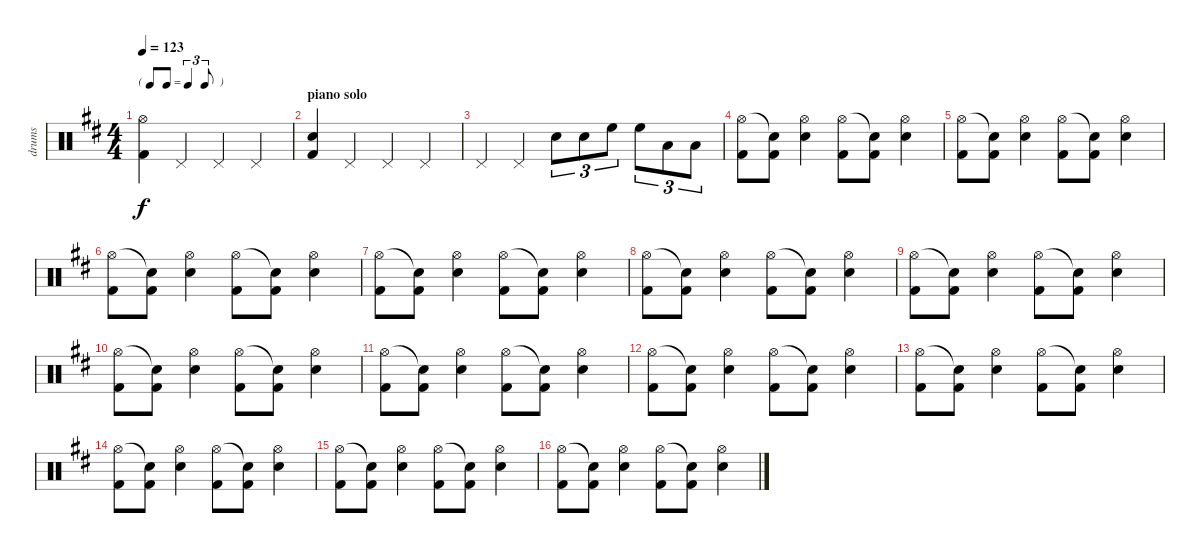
\track ("drums" "drums") {instrument percussion}
\staff {score}
\articulation defaults
\ts (4 4)
\tf triplet8th
\tempo 123
\clef neutral
\ks d
("Hi-Hat (open)" "Kick (hit) 2").4{dy f} "Pedal Hi-Hat (hit)".4 "Pedal Hi-Hat (hit)".4 "Pedal Hi-Hat (hit)".4 |
\section ("" "piano solo")
("Snare (hit) 2" "Kick (hit) 2").4 "Pedal Hi-Hat (hit)".4 "Pedal Hi-Hat (hit)".4 "Pedal Hi-Hat (hit)".4 |
"Pedal Hi-Hat (hit)".4 "Pedal Hi-Hat (hit)".4 "Snare (hit) 2".8{tu (3 2)} "Snare (hit) 2".8{tu (3 2)} "High Floor Tom (hit)".8{tu (3 2)} "High Floor Tom (hit)".8{tu (3 2)} "Low Tom (hit)".8{tu (3 2)} "Low Tom (hit)".8{tu (3 2)} |
("Hi-Hat (open)" "Kick (hit) 2").8 ("Snare (hit)"{t} "Kick (hit) 2").8 ("Hi-Hat (open)" "Snare (hit) 2").4 ("Hi-Hat (open)" "Kick (hit) 2").8 ("Snare (hit)"{t} "Kick (hit) 2").8 ("Hi-Hat (open)" "Snare (hit) 2").4 |
("Hi-Hat (open)" "Kick (hit) 2").8 ("Snare (hit)"{t} "Kick (hit) 2").8 ("Hi-Hat (open)" "Snare (hit) 2").4 ("Hi-Hat (open)" "Kick (hit) 2").8 ("Snare (hit)"{t} "Kick (hit) 2").8 ("Hi-Hat (open)" "Snare (hit) 2").4 |
("Hi-Hat (open)" "Kick (hit) 2").8 ("Snare (hit)"{t} "Kick (hit) 2").8 ("Hi-Hat (open)" "Snare (hit) 2").4 ("Hi-Hat (open)" "Kick (hit) 2").8 ("Snare (hit)"{t} "Kick (hit) 2").8 ("Hi-Hat (open)" "Snare (hit) 2").4 |
("Hi-Hat (open)" "Kick (hit) 2").8 ("Snare (hit)"{t} "Kick (hit) 2").8 ("Hi-Hat (open)" "Snare (hit) 2").4 ("Hi-Hat (open)" "Kick (hit) 2").8 ("Snare (hit)"{t} "Kick (hit) 2").8 ("Hi-Hat (open)" "Snare (hit) 2").4 |
("Hi-Hat (open)" "Kick (hit) 2").8 ("Snare (hit)"{t} "Kick (hit) 2").8 ("Hi-Hat (open)" "Snare (hit) 2").4 ("Hi-Hat (open)" "Kick (hit) 2").8 ("Snare (hit)"{t} "Kick (hit) 2").8 ("Hi-Hat (open)" "Snare (hit) 2").4 |
("Hi-Hat (open)" "Kick (hit) 2").8 ("Snare (hit)"{t} "Kick (hit) 2").8 ("Hi-Hat (open)" "Snare (hit) 2").4 ("Hi-Hat (open)" "Kick (hit) 2").8 ("Snare (hit)"{t} "Kick (hit) 2").8 ("Hi-Hat (open)" "Snare (hit) 2").4 |
("Hi-Hat (open)" "Kick (hit) 2").8 ("Snare (hit)"{t} "Kick (hit) 2").8 ("Hi-Hat (open)" "Snare (hit) 2").4 ("Hi-Hat (open)" "Kick (hit) 2").8 ("Snare (hit)"{t} "Kick (hit) 2").8 ("Hi-Hat (open)" "Snare (hit) 2").4 |
("Hi-Hat (open)" "Kick (hit) 2").8 ("Snare (hit)"{t} "Kick (hit) 2").8 ("Hi-Hat (open)" "Snare (hit) 2").4 ("Hi-Hat (open)" "Kick (hit) 2").8 ("Snare (hit)"{t} "Kick (hit) 2").8 ("Hi-Hat (open)" "Snare (hit) 2").4 |
("Hi-Hat (open)" "Kick (hit) 2").8 ("Snare (hit)"{t} "Kick (hit) 2").8 ("Hi-Hat (open)" "Snare (hit) 2").4 ("Hi-Hat (open)" "Kick (hit) 2").8 ("Snare (hit)"{t} "Kick (hit) 2").8 ("Hi-Hat (open)" "Snare (hit) 2").4 |
("Hi-Hat (open)" "Kick (hit) 2").8 ("Snare (hit)"{t} "Kick (hit) 2").8 ("Hi-Hat (open)" "Snare (hit) 2").4 ("Hi-Hat (open)" "Kick (hit) 2").8 ("Snare (hit)"{t} "Kick (hit) 2").8 ("Hi-Hat (open)" "Snare (hit) 2").4 |
("Hi-Hat (open)" "Kick (hit) 2").8 ("Snare (hit)"{t} "Kick (hit) 2").8 ("Hi-Hat (open)" "Snare (hit) 2").4 ("Hi-Hat (open)" "Kick (hit) 2").8 ("Snare (hit)"{t} "Kick (hit) 2").8 ("Hi-Hat (open)" "Snare (hit) 2").4 |
("Hi-Hat (open)" "Kick (hit) 2").8 ("Snare (hit)"{t} "Kick (hit) 2").8 ("Hi-Hat (open)" "Snare (hit) 2").4 ("Hi-Hat (open)" "Kick (hit) 2").8 ("Snare (hit)"{t} "Kick (hit) 2").8 ("Hi-Hat (open)" "Snare (hit) 2").4 |
("Hi-Hat (open)" "Kick (hit) 2").8 ("Snare (hit)"{t} "Kick (hit) 2").8 ("Hi-Hat (open)" "Snare (hit) 2").4 ("Hi-Hat (open)" "Kick (hit) 2").8 ("Snare (hit)"{t} "Kick (hit) 2").8 ("Hi-Hat (open)" "Snare (hit) 2").4
